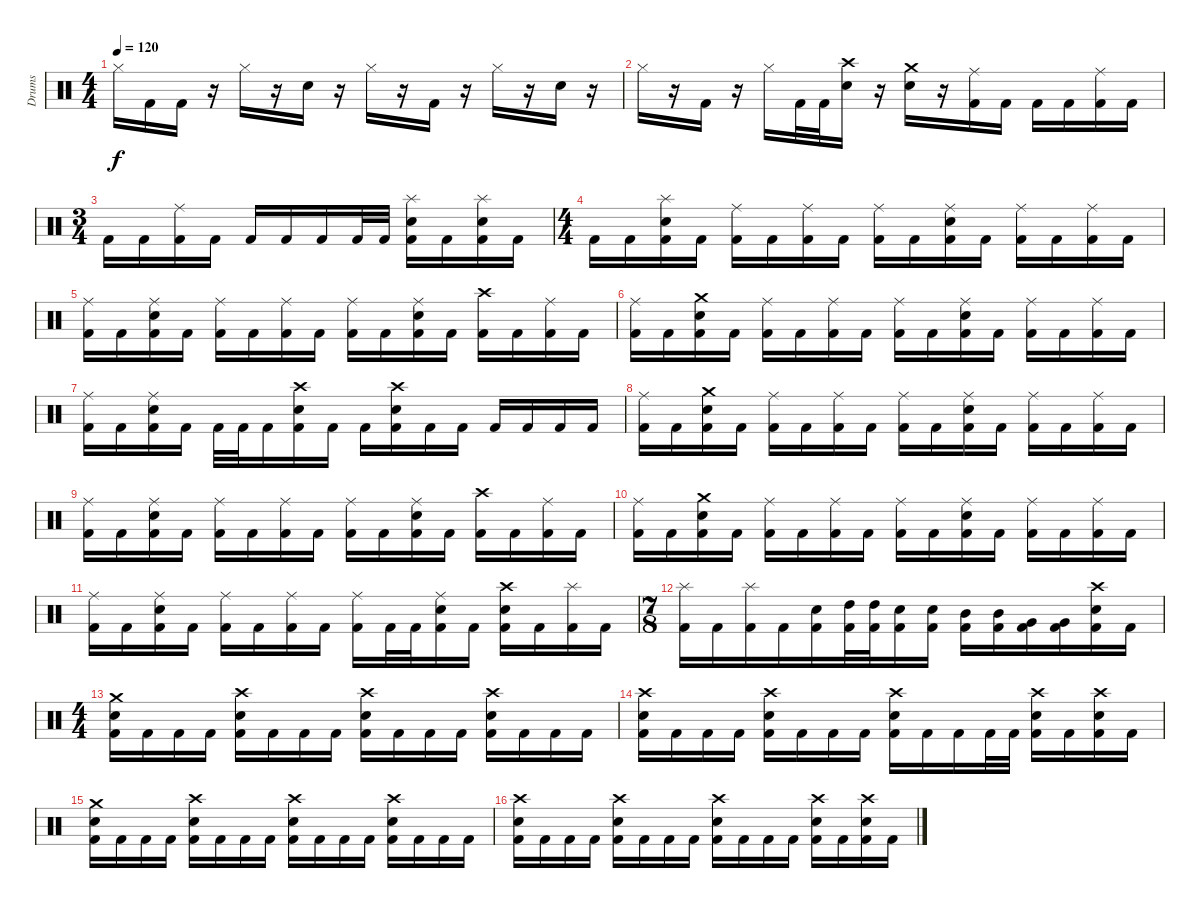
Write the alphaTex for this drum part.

\track ("Drums" "Drums") {instrument percussion}
\staff {score}
\articulation defaults
\ts (4 4)
\tempo 120
\clef neutral
\ks c "Hi-Hat (closed)".16{dy f} "Kick (hit) 2".16 "Kick (hit) 2".16
r.16 "Hi-Hat (closed)".16 r.16 "Snare (hit) 2".16 r.16 "Hi-Hat (closed)".16 r.16 "Kick (hit) 2".16 r.16 "Hi-Hat (closed)".16 r.16 "Snare (hit) 2".16 r.16 |
"Hi-Hat (closed)".16 r.16 "Kick (hit) 2".16 r.16 "Hi-Hat (closed)".16 "Kick (hit) 2".32 "Kick (hit) 2".32 ("Crash high (hit)" "Snare (hit) 2").16 r.16 ("Crash medium (hit)" "Snare (hit) 2").16 r.16 ("Ride (middle)" "Kick (hit) 2").16 "Kick (hit) 2".16 "Kick (hit) 2".16 "Kick (hit) 2".16 ("Ride (middle)" "Kick (hit) 2").16 "Kick (hit) 2".16 |
\ts (3 4)
"Kick (hit) 2".16 "Kick (hit) 2".16 ("Ride (middle)" "Kick (hit) 2").16 "Kick (hit) 2".16 "Kick (hit) 2".16 "Kick (hit) 2".16 "Kick (hit) 2".16 "Kick (hit) 2".32 "Kick (hit) 2".32 ("Splash (hit)" "Snare (hit) 2" "Kick (hit) 2").16 "Kick (hit) 2".16 ("Splash (hit)" "Snare (hit) 2" "Kick (hit) 2").16 "Kick (hit) 2".16 |
\ts (4 4)
"Kick (hit) 2".16 "Kick (hit) 2".16 ("Splash (hit)" "Snare (hit) 2" "Kick (hit) 2").16 "Kick (hit) 2".16 ("Ride (middle)" "Kick (hit) 2").16 "Kick (hit) 2".16 ("Ride (middle)" "Kick (hit) 2").16 "Kick (hit) 2".16 ("Ride (middle)" "Kick (hit) 2").16 "Kick (hit) 2".16 ("Ride (middle)" "Snare (hit) 2" "Kick (hit) 2").16 "Kick (hit) 2".16 ("Ride (middle)" "Kick (hit) 2").16 "Kick (hit) 2".16 ("Ride (middle)" "Kick (hit) 2").16 "Kick (hit) 2".16 |
("Ride (middle)" "Kick (hit) 2").16 "Kick (hit) 2".16 ("Ride (middle)" "Snare (hit) 2" "Kick (hit) 2").16 "Kick (hit) 2".16 ("Ride (middle)" "Kick (hit) 2").16 "Kick (hit) 2".16 ("Ride (middle)" "Kick (hit) 2").16 "Kick (hit) 2".16 ("Ride (middle)" "Kick (hit) 2").16 "Kick (hit) 2".16 ("Ride (middle)" "Snare (hit) 2" "Kick (hit) 2").16 "Kick (hit) 2".16 ("Crash high (hit)" "Kick (hit) 2").16 "Kick (hit) 2".16 ("Ride (middle)" "Kick (hit) 2").16 "Kick (hit) 2".16 |
("Ride (middle)" "Kick (hit) 2").16 "Kick (hit) 2".16 ("Crash medium (hit)" "Snare (hit) 2" "Kick (hit) 2").16 "Kick (hit) 2".16 ("Ride (middle)" "Kick (hit) 2").16 "Kick (hit) 2".16 ("Ride (middle)" "Kick (hit) 2").16 "Kick (hit) 2".16 ("Ride (middle)" "Kick (hit) 2").16 "Kick (hit) 2".16 ("Ride (middle)" "Snare (hit) 2" "Kick (hit) 2").16 "Kick (hit) 2".16 ("Ride (middle)" "Kick (hit) 2").16 "Kick (hit) 2".16 ("Ride (middle)" "Kick (hit) 2").16 "Kick (hit) 2".16 |
("Ride (middle)" "Kick (hit) 2").16 "Kick (hit) 2".16 ("Ride (middle)" "Snare (hit) 2" "Kick (hit) 2").16 "Kick (hit) 2".16 "Kick (hit) 2".32 "Kick (hit) 2".32 "Kick (hit) 2".16 ("Crash high (hit)" "Snare (hit) 2" "Kick (hit) 2").16 "Kick (hit) 2".16 "Kick (hit) 2".16 ("Crash high (hit)" "Snare (hit) 2" "Kick (hit) 2").16 "Kick (hit) 2".16 "Kick (hit) 2".16 "Kick (hit) 2".16 "Kick (hit) 2".16 "Kick (hit) 2".16 "Kick (hit) 2".16 |
("Ride (middle)" "Kick (hit) 2").16 "Kick (hit) 2".16 ("Crash medium (hit)" "Snare (hit) 2" "Kick (hit) 2").16 "Kick (hit) 2".16 ("Ride (middle)" "Kick (hit) 2").16 "Kick (hit) 2".16 ("Ride (middle)" "Kick (hit) 2").16 "Kick (hit) 2".16 ("Ride (middle)" "Kick (hit) 2").16 "Kick (hit) 2".16 ("Ride (middle)" "Snare (hit) 2" "Kick (hit) 2").16 "Kick (hit) 2".16 ("Ride (middle)" "Kick (hit) 2").16 "Kick (hit) 2".16 ("Ride (middle)" "Kick (hit) 2").16 "Kick (hit) 2".16 |
("Ride (middle)" "Kick (hit) 2").16 "Kick (hit) 2".16 ("Ride (middle)" "Snare (hit) 2" "Kick (hit) 2").16 "Kick (hit) 2".16 ("Ride (middle)" "Kick (hit) 2").16 "Kick (hit) 2".16 ("Ride (middle)" "Kick (hit) 2").16 "Kick (hit) 2".16 ("Ride (middle)" "Kick (hit) 2").16 "Kick (hit) 2".16 ("Ride (middle)" "Snare (hit) 2" "Kick (hit) 2").16 "Kick (hit) 2".16 ("Crash high (hit)" "Kick (hit) 2").16 "Kick (hit) 2".16 ("Ride (middle)" "Kick (hit) 2").16 "Kick (hit) 2".16 |
("Ride (middle)" "Kick (hit) 2").16 "Kick (hit) 2".16 ("Crash medium (hit)" "Snare (hit) 2" "Kick (hit) 2").16 "Kick (hit) 2".16 ("Ride (middle)" "Kick (hit) 2").16 "Kick (hit) 2".16 ("Ride (middle)" "Kick (hit) 2").16 "Kick (hit) 2".16 ("Ride (middle)" "Kick (hit) 2").16 "Kick (hit) 2".16 ("Ride (middle)" "Snare (hit) 2" "Kick (hit) 2").16 "Kick (hit) 2".16 ("Ride (middle)" "Kick (hit) 2").16 "Kick (hit) 2".16 ("Ride (middle)" "Kick (hit) 2").16 "Kick (hit) 2".16 |
("Ride (middle)" "Kick (hit) 2").16 "Kick (hit) 2".16 ("Ride (middle)" "Snare (hit) 2" "Kick (hit) 2").16 "Kick (hit) 2".16 ("Ride (middle)" "Kick (hit) 2").16 "Kick (hit) 2".16 ("Ride (middle)" "Kick (hit) 2").16 "Kick (hit) 2".16 ("Ride (middle)" "Kick (hit) 2").16 "Kick (hit) 2".32 "Kick (hit) 2".32 ("Ride (middle)" "Snare (hit) 2" "Kick (hit) 2").16 "Kick (hit) 2".16 ("Crash high (hit)" "Snare (hit) 2" "Kick (hit) 2").16 "Kick (hit) 2".16 ("Splash (hit)" "Kick (hit) 2").16 "Kick (hit) 2".16 |
\ts (7 8)
("Splash (hit)" "Kick (hit) 2").16 "Kick (hit) 2".16 ("Splash (hit)" "Kick (hit) 2").16 "Kick (hit) 2".16 ("Snare (hit) 2" "Kick (hit) 2").16 ("High Tom (hit)" "Kick (hit) 2").32 ("High Tom (hit)" "Kick (hit) 2").32 ("Snare (hit) 2" "Kick (hit) 2").16 ("Snare (hit) 2" "Kick (hit) 2").16 ("Mid Tom (hit)" "Kick (hit) 2").16 ("Mid Tom (hit)" "Kick (hit) 2").16 ("Very Low Tom (hit)" "Kick (hit) 2").16 ("Very Low Tom (hit)" "Kick (hit) 2").16 ("Crash high (hit)" "Snare (hit) 2" "Kick (hit) 2").16 "Kick (hit) 2".16 |
\ts (4 4)
("Crash medium (hit)" "Snare (hit) 2" "Kick (hit) 2").16 "Kick (hit) 2".16 "Kick (hit) 2".16 "Kick (hit) 2".16 ("Crash high (hit)" "Snare (hit) 2" "Kick (hit) 2").16 "Kick (hit) 2".16 "Kick (hit) 2".16 "Kick (hit) 2".16 ("Crash high (hit)" "Snare (hit) 2" "Kick (hit) 2").16 "Kick (hit) 2".16 "Kick (hit) 2".16 "Kick (hit) 2".16 ("Crash high (hit)" "Snare (hit) 2" "Kick (hit) 2").16 "Kick (hit) 2".16 "Kick (hit) 2".16 "Kick (hit) 2".16 |
("Crash high (hit)" "Snare (hit) 2" "Kick (hit) 2").16 "Kick (hit) 2".16 "Kick (hit) 2".16 "Kick (hit) 2".16 ("Crash high (hit)" "Snare (hit) 2" "Kick (hit) 2").16 "Kick (hit) 2".16 "Kick (hit) 2".16 "Kick (hit) 2".16 ("Crash high (hit)" "Snare (hit) 2" "Kick (hit) 2").16 "Kick (hit) 2".16 "Kick (hit) 2".16 "Kick (hit) 2".32 "Kick (hit) 2".32 ("Crash high (hit)" "Snare (hit) 2" "Kick (hit) 2").16 "Kick (hit) 2".16 ("Crash high (hit)" "Snare (hit) 2" "Kick (hit) 2").16 "Kick (hit) 2".16 |
("Crash medium (hit)" "Snare (hit) 2" "Kick (hit) 2").16 "Kick (hit) 2".16 "Kick (hit) 2".16 "Kick (hit) 2".16 ("Crash high (hit)" "Snare (hit) 2" "Kick (hit) 2").16 "Kick (hit) 2".16 "Kick (hit) 2".16 "Kick (hit) 2".16 ("Crash high (hit)" "Snare (hit) 2" "Kick (hit) 2").16 "Kick (hit) 2".16 "Kick (hit) 2".16 "Kick (hit) 2".16 ("Crash high (hit)" "Snare (hit) 2" "Kick (hit) 2").16 "Kick (hit) 2".16 "Kick (hit) 2".16 "Kick (hit) 2".16 |
("Crash high (hit)" "Snare (hit) 2" "Kick (hit) 2").16 "Kick (hit) 2".16 "Kick (hit) 2".16 "Kick (hit) 2".16 ("Crash high (hit)" "Snare (hit) 2" "Kick (hit) 2").16 "Kick (hit) 2".16 "Kick (hit) 2".16 "Kick (hit) 2".16 ("Crash high (hit)" "Snare (hit) 2" "Kick (hit) 2").16 "Kick (hit) 2".16 "Kick (hit) 2".16 "Kick (hit) 2".16 ("Crash high (hit)" "Snare (hit) 2" "Kick (hit) 2").16 "Kick (hit) 2".16 ("Crash high (hit)" "Snare (hit) 2" "Kick (hit) 2").16 "Kick (hit) 2".16
